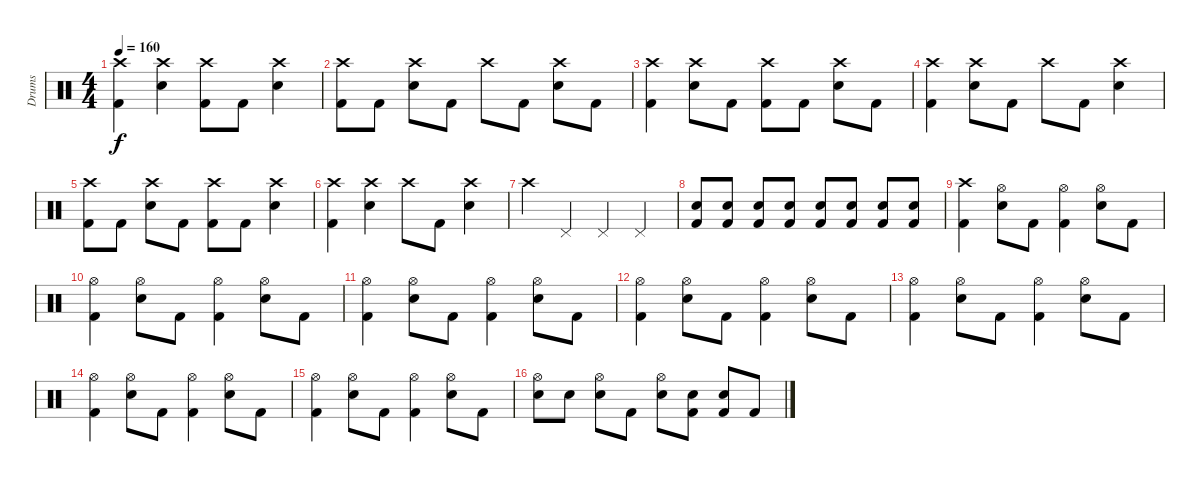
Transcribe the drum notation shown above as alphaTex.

\track ("Drums" "Drums") {instrument percussion}
\staff {score}
\articulation defaults
\ts (4 4)
\tempo 160
\clef neutral
\ks c
("Crash high (hit)" "Kick (hit) 2").4{dy f} ("Crash high (hit)" "Electric Snare (hit)").4 ("Crash high (hit)" "Kick (hit) 2").8 "Kick (hit) 2".8 ("Crash high (hit)" "Electric Snare (hit)").4 |
("Crash high (hit)" "Kick (hit) 2").8 "Kick (hit) 2".8 ("Crash high (hit)" "Electric Snare (hit)").8 "Kick (hit) 2".8 "Crash high (hit)".8 "Kick (hit) 2".8 ("Crash high (hit)" "Electric Snare (hit)").8 "Kick (hit) 2".8 |
("Crash high (hit)" "Kick (hit) 2").4 ("Crash high (hit)" "Electric Snare (hit)").8 "Kick (hit) 2".8 ("Crash high (hit)" "Kick (hit) 2").8 "Kick (hit) 2".8 ("Crash high (hit)" "Electric Snare (hit)").8 "Kick (hit) 2".8 |
("Crash high (hit)" "Kick (hit) 2").4 ("Crash high (hit)" "Electric Snare (hit)").8 "Kick (hit) 2".8 "Crash high (hit)".8 "Kick (hit) 2".8 ("Crash high (hit)" "Electric Snare (hit)").4 |
("Crash high (hit)" "Kick (hit) 2").8 "Kick (hit) 2".8 ("Crash high (hit)" "Electric Snare (hit)").8 "Kick (hit) 2".8 ("Crash high (hit)" "Kick (hit) 2").8 "Kick (hit) 2".8 ("Crash high (hit)" "Electric Snare (hit)").4 |
("Crash high (hit)" "Kick (hit) 2").4 ("Crash high (hit)" "Electric Snare (hit)").4 "Crash high (hit)".8 "Kick (hit) 2".8 ("Crash high (hit)" "Electric Snare (hit)").4 |
"Crash high (hit)".4 "Pedal Hi-Hat (hit)".4 "Pedal Hi-Hat (hit)".4 "Pedal Hi-Hat (hit)".4 |
("Electric Snare (hit)" "Kick (hit) 2").8 ("Electric Snare (hit)" "Kick (hit) 2").8 ("Electric Snare (hit)" "Kick (hit) 2").8 ("Electric Snare (hit)" "Kick (hit) 2").8 ("Electric Snare (hit)" "Kick (hit) 2").8 ("Electric Snare (hit)" "Kick (hit) 2").8 ("Electric Snare (hit)" "Kick (hit) 2").8 ("Electric Snare (hit)" "Kick (hit) 2").8 |
("Crash high (hit)" "Kick (hit) 2").4 ("Hi-Hat (open)" "Electric Snare (hit)").8 "Kick (hit) 2".8 ("Hi-Hat (open)" "Kick (hit) 2").4 ("Hi-Hat (open)" "Electric Snare (hit)").8 "Kick (hit) 2".8 |
("Hi-Hat (open)" "Kick (hit) 2").4 ("Hi-Hat (open)" "Electric Snare (hit)").8 "Kick (hit) 2".8 ("Hi-Hat (open)" "Kick (hit) 2").4 ("Hi-Hat (open)" "Electric Snare (hit)").8 "Kick (hit) 2".8 |
("Hi-Hat (open)" "Kick (hit) 2").4 ("Hi-Hat (open)" "Electric Snare (hit)").8 "Kick (hit) 2".8 ("Hi-Hat (open)" "Kick (hit) 2").4 ("Hi-Hat (open)" "Electric Snare (hit)").8 "Kick (hit) 2".8 |
("Hi-Hat (open)" "Kick (hit) 2").4 ("Hi-Hat (open)" "Electric Snare (hit)").8 "Kick (hit) 2".8 ("Hi-Hat (open)" "Kick (hit) 2").4 ("Hi-Hat (open)" "Electric Snare (hit)").8 "Kick (hit) 2".8 |
("Hi-Hat (open)" "Kick (hit) 2").4 ("Hi-Hat (open)" "Electric Snare (hit)").8 "Kick (hit) 2".8 ("Hi-Hat (open)" "Kick (hit) 2").4 ("Hi-Hat (open)" "Electric Snare (hit)").8 "Kick (hit) 2".8 |
("Hi-Hat (open)" "Kick (hit) 2").4 ("Hi-Hat (open)" "Electric Snare (hit)").8 "Kick (hit) 2".8 ("Hi-Hat (open)" "Kick (hit) 2").4 ("Hi-Hat (open)" "Electric Snare (hit)").8 "Kick (hit) 2".8 |
("Hi-Hat (open)" "Kick (hit) 2").4 ("Hi-Hat (open)" "Electric Snare (hit)").8 "Kick (hit) 2".8 ("Hi-Hat (open)" "Kick (hit) 2").4 ("Hi-Hat (open)" "Electric Snare (hit)").8 "Kick (hit) 2".8 |
("Hi-Hat (open)" "Electric Snare (hit)").8 "Electric Snare (hit)".8 ("Hi-Hat (open)" "Electric Snare (hit)").8 "Kick (hit) 2".8 ("Hi-Hat (open)" "Electric Snare (hit)").8 ("Electric Snare (hit)" "Kick (hit) 2").8 ("Electric Snare (hit)" "Kick (hit) 2").8 "Kick (hit) 2".8
